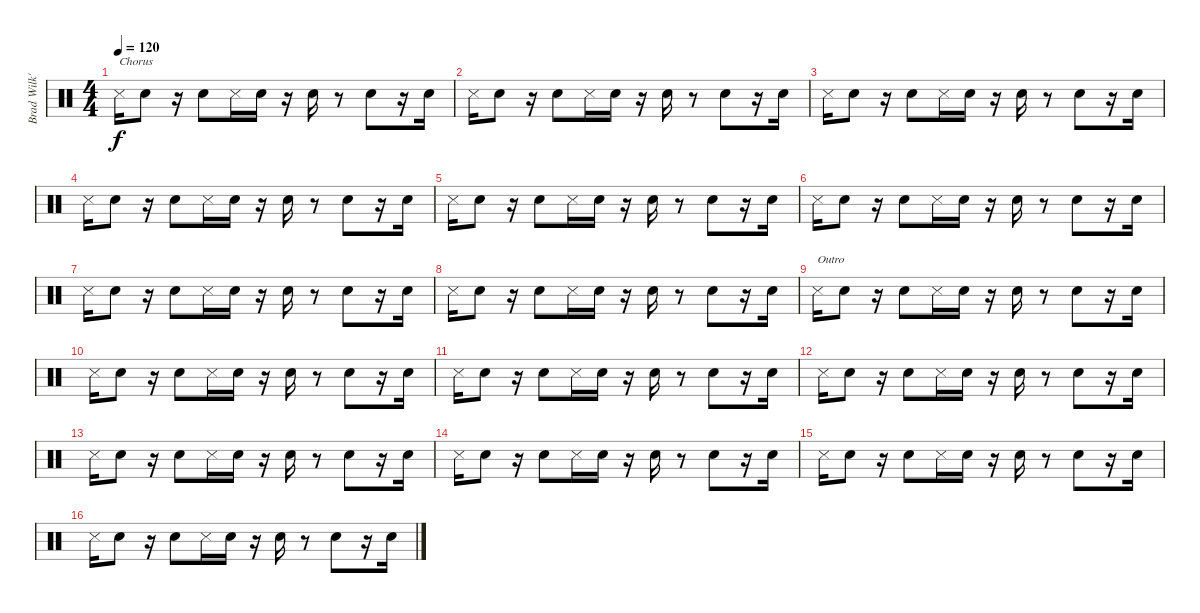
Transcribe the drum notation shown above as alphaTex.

\track ("Brad Wilk's Snare Drum" "Brad Wilk'") {instrument percussion}
\staff {score}
\articulation defaults
\ts (4 4)
\tempo 120
\clef neutral
\ks c "Snare (side stick) 3".16{txt "Chorus" dy f} "Electric Snare (hit)".8
r.16 "Electric Snare (hit)".8 "Snare (side stick) 3".16 "Electric Snare (hit)".16 r.16 "Electric Snare (hit)".16 r.8 "Electric Snare (hit)".8 r.16 "Electric Snare (hit)".16 |
"Snare (side stick) 3".16 "Electric Snare (hit)".8 r.16 "Electric Snare (hit)".8 "Snare (side stick) 3".16 "Electric Snare (hit)".16 r.16 "Electric Snare (hit)".16 r.8 "Electric Snare (hit)".8 r.16 "Electric Snare (hit)".16 |
"Snare (side stick) 3".16 "Electric Snare (hit)".8 r.16 "Electric Snare (hit)".8 "Snare (side stick) 3".16 "Electric Snare (hit)".16 r.16 "Electric Snare (hit)".16 r.8 "Electric Snare (hit)".8 r.16 "Electric Snare (hit)".16 |
"Snare (side stick) 3".16 "Electric Snare (hit)".8 r.16 "Electric Snare (hit)".8 "Snare (side stick) 3".16 "Electric Snare (hit)".16 r.16 "Electric Snare (hit)".16 r.8 "Electric Snare (hit)".8 r.16 "Electric Snare (hit)".16 |
"Snare (side stick) 3".16 "Electric Snare (hit)".8 r.16 "Electric Snare (hit)".8 "Snare (side stick) 3".16 "Electric Snare (hit)".16 r.16 "Electric Snare (hit)".16 r.8 "Electric Snare (hit)".8 r.16 "Electric Snare (hit)".16 |
"Snare (side stick) 3".16 "Electric Snare (hit)".8 r.16 "Electric Snare (hit)".8 "Snare (side stick) 3".16 "Electric Snare (hit)".16 r.16 "Electric Snare (hit)".16 r.8 "Electric Snare (hit)".8 r.16 "Electric Snare (hit)".16 |
"Snare (side stick) 3".16 "Electric Snare (hit)".8 r.16 "Electric Snare (hit)".8 "Snare (side stick) 3".16 "Electric Snare (hit)".16 r.16 "Electric Snare (hit)".16 r.8 "Electric Snare (hit)".8 r.16 "Electric Snare (hit)".16 |
"Snare (side stick) 3".16 "Electric Snare (hit)".8 r.16 "Electric Snare (hit)".8 "Snare (side stick) 3".16 "Electric Snare (hit)".16 r.16 "Electric Snare (hit)".16 r.8 "Electric Snare (hit)".8 r.16 "Electric Snare (hit)".16 |
"Snare (side stick) 3".16{txt "Outro"} "Electric Snare (hit)".8 r.16 "Electric Snare (hit)".8 "Snare (side stick) 3".16 "Electric Snare (hit)".16 r.16 "Electric Snare (hit)".16 r.8 "Electric Snare (hit)".8 r.16 "Electric Snare (hit)".16 |
"Snare (side stick) 3".16 "Electric Snare (hit)".8 r.16 "Electric Snare (hit)".8 "Snare (side stick) 3".16 "Electric Snare (hit)".16 r.16 "Electric Snare (hit)".16 r.8 "Electric Snare (hit)".8 r.16 "Electric Snare (hit)".16 |
"Snare (side stick) 3".16 "Electric Snare (hit)".8 r.16 "Electric Snare (hit)".8 "Snare (side stick) 3".16 "Electric Snare (hit)".16 r.16 "Electric Snare (hit)".16 r.8 "Electric Snare (hit)".8 r.16 "Electric Snare (hit)".16 |
"Snare (side stick) 3".16 "Electric Snare (hit)".8 r.16 "Electric Snare (hit)".8 "Snare (side stick) 3".16 "Electric Snare (hit)".16 r.16 "Electric Snare (hit)".16 r.8 "Electric Snare (hit)".8 r.16 "Electric Snare (hit)".16 |
"Snare (side stick) 3".16 "Electric Snare (hit)".8 r.16 "Electric Snare (hit)".8 "Snare (side stick) 3".16 "Electric Snare (hit)".16 r.16 "Electric Snare (hit)".16 r.8 "Electric Snare (hit)".8 r.16 "Electric Snare (hit)".16 |
"Snare (side stick) 3".16 "Electric Snare (hit)".8 r.16 "Electric Snare (hit)".8 "Snare (side stick) 3".16 "Electric Snare (hit)".16 r.16 "Electric Snare (hit)".16 r.8 "Electric Snare (hit)".8 r.16 "Electric Snare (hit)".16 |
"Snare (side stick) 3".16 "Electric Snare (hit)".8 r.16 "Electric Snare (hit)".8 "Snare (side stick) 3".16 "Electric Snare (hit)".16 r.16 "Electric Snare (hit)".16 r.8 "Electric Snare (hit)".8 r.16 "Electric Snare (hit)".16 |
"Snare (side stick) 3".16 "Electric Snare (hit)".8 r.16 "Electric Snare (hit)".8 "Snare (side stick) 3".16 "Electric Snare (hit)".16 r.16 "Electric Snare (hit)".16 r.8 "Electric Snare (hit)".8 r.16 "Electric Snare (hit)".16
